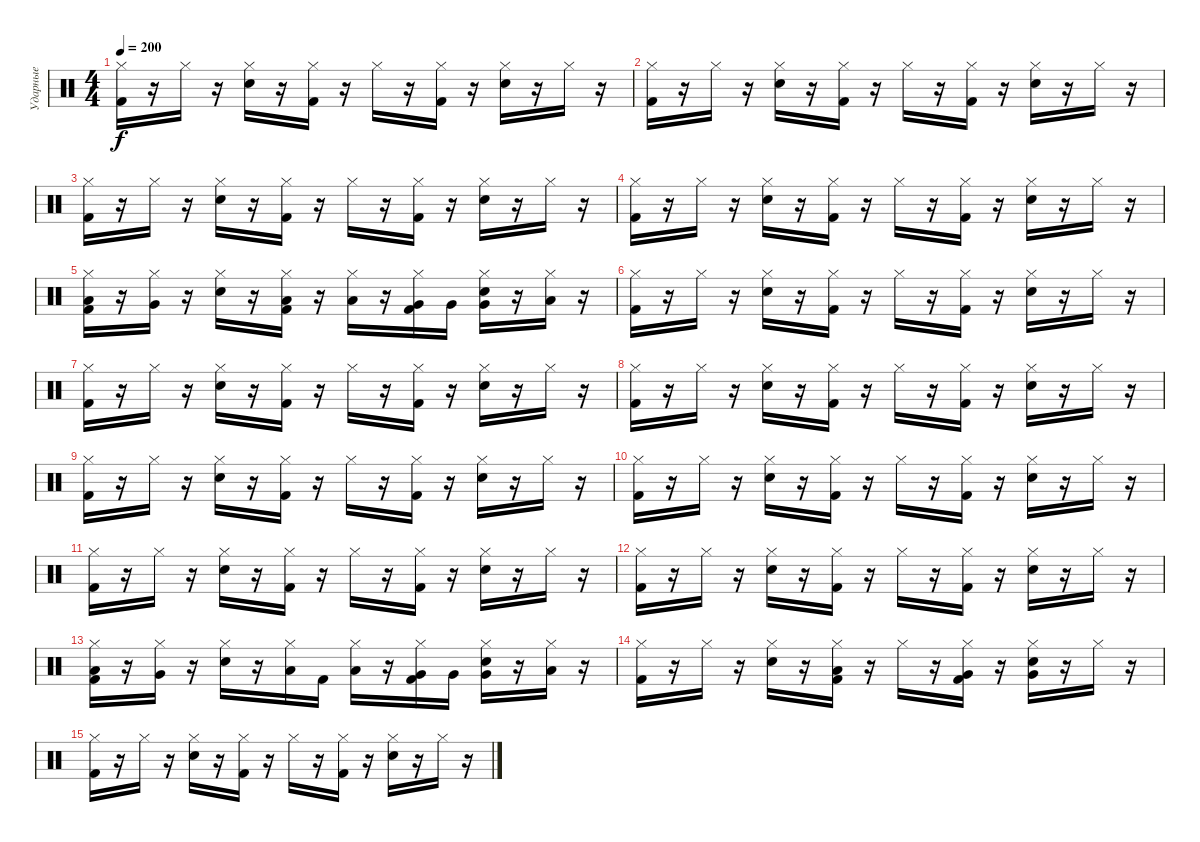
\track ("Ударные" "Ударные") {instrument percussion}
\staff {score}
\articulation defaults
\ts (4 4)
\tempo 200
\clef neutral
\ks c
("Kick (hit) 2" "Hi-Hat (closed)").16{dy f} r.16 "Hi-Hat (closed)".16 r.16 ("Snare (hit) 2" "Hi-Hat (closed)").16 r.16 ("Kick (hit) 2" "Hi-Hat (closed)").16 r.16 "Hi-Hat (closed)".16 r.16 ("Kick (hit) 2" "Hi-Hat (closed)").16 r.16 ("Snare (hit) 2" "Hi-Hat (closed)").16 r.16 "Hi-Hat (closed)".16 r.16 |
("Kick (hit) 2" "Hi-Hat (closed)").16 r.16 "Hi-Hat (closed)".16 r.16 ("Snare (hit) 2" "Hi-Hat (closed)").16 r.16 ("Kick (hit) 2" "Hi-Hat (closed)").16 r.16 "Hi-Hat (closed)".16 r.16 ("Kick (hit) 2" "Hi-Hat (closed)").16 r.16 ("Snare (hit) 2" "Hi-Hat (closed)").16 r.16 "Hi-Hat (closed)".16 r.16 |
("Kick (hit) 2" "Hi-Hat (closed)").16 r.16 "Hi-Hat (closed)".16 r.16 ("Snare (hit) 2" "Hi-Hat (closed)").16 r.16 ("Kick (hit) 2" "Hi-Hat (closed)").16 r.16 "Hi-Hat (closed)".16 r.16 ("Kick (hit) 2" "Hi-Hat (closed)").16 r.16 ("Snare (hit) 2" "Hi-Hat (closed)").16 r.16 "Hi-Hat (closed)".16 r.16 |
("Kick (hit) 2" "Hi-Hat (closed)").16 r.16 "Hi-Hat (closed)".16 r.16 ("Snare (hit) 2" "Hi-Hat (closed)").16 r.16 ("Kick (hit) 2" "Hi-Hat (closed)").16 r.16 "Hi-Hat (closed)".16 r.16 ("Kick (hit) 2" "Hi-Hat (closed)").16 r.16 ("Snare (hit) 2" "Hi-Hat (closed)").16 r.16 "Hi-Hat (closed)".16 r.16 |
("Kick (hit) 2" "Low Floor Tom (hit)" "Hi-Hat (closed)").16 r.16 ("Very Low Tom (hit)" "Hi-Hat (closed)").16 r.16 ("Snare (hit) 2" "Hi-Hat (closed)").16 r.16 ("Kick (hit) 2" "Low Floor Tom (hit)" "Hi-Hat (closed)").16 r.16 ("Low Floor Tom (hit)" "Hi-Hat (closed)").16 r.16 ("Kick (hit) 2" "Very Low Tom (hit)" "Hi-Hat (closed)").16 "Very Low Tom (hit)".16 ("Snare (hit) 2" "Very Low Tom (hit)" "Hi-Hat (closed)").16 r.16 ("Low Tom (hit)" "Hi-Hat (closed)").16 r.16 |
("Kick (hit) 2" "Hi-Hat (closed)").16 r.16 "Hi-Hat (closed)".16 r.16 ("Snare (hit) 2" "Hi-Hat (closed)").16 r.16 ("Kick (hit) 2" "Hi-Hat (closed)").16 r.16 "Hi-Hat (closed)".16 r.16 ("Kick (hit) 2" "Hi-Hat (closed)").16 r.16 ("Snare (hit) 2" "Hi-Hat (closed)").16 r.16 "Hi-Hat (closed)".16 r.16 |
("Kick (hit) 2" "Hi-Hat (closed)").16 r.16 "Hi-Hat (closed)".16 r.16 ("Snare (hit) 2" "Hi-Hat (closed)").16 r.16 ("Kick (hit) 2" "Hi-Hat (closed)").16 r.16 "Hi-Hat (closed)".16 r.16 ("Kick (hit) 2" "Hi-Hat (closed)").16 r.16 ("Snare (hit) 2" "Hi-Hat (closed)").16 r.16 "Hi-Hat (closed)".16 r.16 |
("Kick (hit) 2" "Hi-Hat (closed)").16 r.16 "Hi-Hat (closed)".16 r.16 ("Snare (hit) 2" "Hi-Hat (closed)").16 r.16 ("Kick (hit) 2" "Hi-Hat (closed)").16 r.16 "Hi-Hat (closed)".16 r.16 ("Kick (hit) 2" "Hi-Hat (closed)").16 r.16 ("Snare (hit) 2" "Hi-Hat (closed)").16 r.16 "Hi-Hat (closed)".16 r.16 |
("Kick (hit) 2" "Hi-Hat (closed)").16 r.16 "Hi-Hat (closed)".16 r.16 ("Snare (hit) 2" "Hi-Hat (closed)").16 r.16 ("Kick (hit) 2" "Hi-Hat (closed)").16 r.16 "Hi-Hat (closed)".16 r.16 ("Kick (hit) 2" "Hi-Hat (closed)").16 r.16 ("Snare (hit) 2" "Hi-Hat (closed)").16 r.16 "Hi-Hat (closed)".16 r.16 |
("Kick (hit) 2" "Hi-Hat (closed)").16 r.16 "Hi-Hat (closed)".16 r.16 ("Snare (hit) 2" "Hi-Hat (closed)").16 r.16 ("Kick (hit) 2" "Hi-Hat (closed)").16 r.16 "Hi-Hat (closed)".16 r.16 ("Kick (hit) 2" "Hi-Hat (closed)").16 r.16 ("Snare (hit) 2" "Hi-Hat (closed)").16 r.16 "Hi-Hat (closed)".16 r.16 |
("Kick (hit) 2" "Hi-Hat (closed)").16 r.16 "Hi-Hat (closed)".16 r.16 ("Snare (hit) 2" "Hi-Hat (closed)").16 r.16 ("Kick (hit) 2" "Hi-Hat (closed)").16 r.16 "Hi-Hat (closed)".16 r.16 ("Kick (hit) 2" "Hi-Hat (closed)").16 r.16 ("Snare (hit) 2" "Hi-Hat (closed)").16 r.16 "Hi-Hat (closed)".16 r.16 |
("Kick (hit) 2" "Hi-Hat (closed)").16 r.16 "Hi-Hat (closed)".16 r.16 ("Snare (hit) 2" "Hi-Hat (closed)").16 r.16 ("Kick (hit) 2" "Hi-Hat (closed)").16 r.16 "Hi-Hat (closed)".16 r.16 ("Kick (hit) 2" "Hi-Hat (closed)").16 r.16 ("Snare (hit) 2" "Hi-Hat (closed)").16 r.16 "Hi-Hat (closed)".16 r.16 |
("Kick (hit) 2" "Low Floor Tom (hit)" "Hi-Hat (closed)").16 r.16 ("Very Low Tom (hit)" "Hi-Hat (closed)").16 r.16 ("Snare (hit) 2" "Hi-Hat (closed)").16 r.16 ("Low Floor Tom (hit)" "Hi-Hat (closed)").16 "Kick (hit) 2".16 ("Low Floor Tom (hit)" "Hi-Hat (closed)").16 r.16 ("Kick (hit) 2" "Very Low Tom (hit)" "Hi-Hat (closed)").16 "Very Low Tom (hit)".16 ("Snare (hit) 2" "Very Low Tom (hit)" "Hi-Hat (closed)").16 r.16 ("Low Tom (hit)" "Hi-Hat (closed)").16 r.16 |
("Kick (hit) 2" "Hi-Hat (closed)").16 r.16 "Hi-Hat (closed)".16 r.16 ("Snare (hit) 2" "Hi-Hat (closed)").16 r.16 ("Kick (hit) 2" "Low Floor Tom (hit)" "Hi-Hat (closed)").16 r.16 "Hi-Hat (closed)".16 r.16 ("Kick (hit) 2" "Very Low Tom (hit)" "Hi-Hat (closed)").16 r.16 ("Snare (hit) 2" "Very Low Tom (hit)" "Hi-Hat (closed)").16 r.16 "Hi-Hat (closed)".16 r.16 |
("Kick (hit) 2" "Hi-Hat (closed)").16 r.16 "Hi-Hat (closed)".16 r.16 ("Snare (hit) 2" "Hi-Hat (closed)").16 r.16 ("Kick (hit) 2" "Hi-Hat (closed)").16 r.16 "Hi-Hat (closed)".16 r.16 ("Kick (hit) 2" "Hi-Hat (closed)").16 r.16 ("Snare (hit) 2" "Hi-Hat (closed)").16 r.16 "Hi-Hat (closed)".16 r.16
